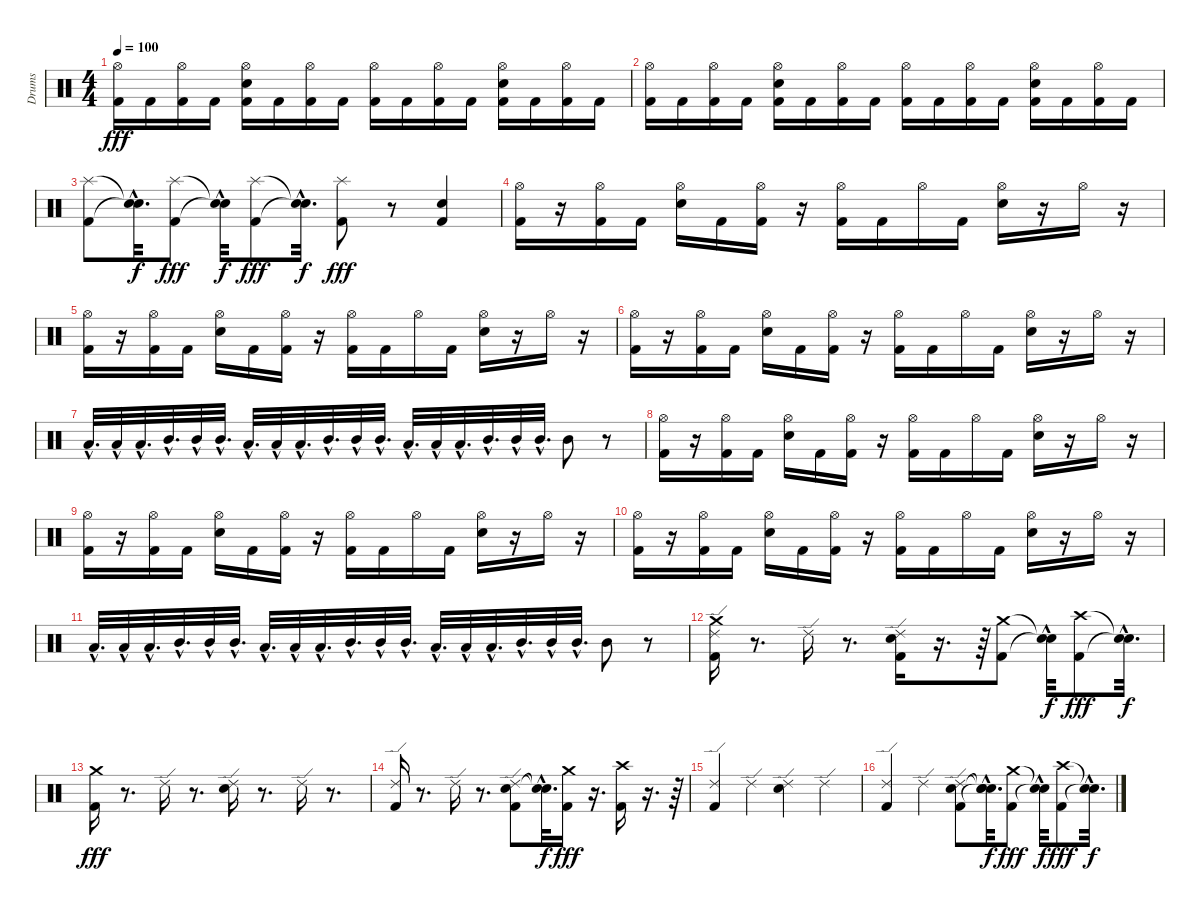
\track ("Drums" "Drums") {instrument percussion}
\staff {score}
\articulation defaults
\ts (4 4)
\tempo 100
\clef neutral
\ks c
("Hi-Hat (open)" "Kick (hit) 2").16{dy fff} "Kick (hit) 2".16 ("Hi-Hat (open)" "Kick (hit) 2").16 "Kick (hit) 2".16 ("Electric Snare (hit)" "Hi-Hat (open)" "Kick (hit) 2").16 "Kick (hit) 2".16 ("Hi-Hat (open)" "Kick (hit) 2").16 "Kick (hit) 2".16 ("Hi-Hat (open)" "Kick (hit) 2").16 "Kick (hit) 2".16 ("Hi-Hat (open)" "Kick (hit) 2").16 "Kick (hit) 2".16 ("Hi-Hat (open)" "Electric Snare (hit)" "Kick (hit) 2").16 "Kick (hit) 2".16 ("Hi-Hat (open)" "Kick (hit) 2").16 "Kick (hit) 2".16 |
("Hi-Hat (open)" "Kick (hit) 2").16 "Kick (hit) 2".16 ("Hi-Hat (open)" "Kick (hit) 2").16 "Kick (hit) 2".16 ("Electric Snare (hit)" "Hi-Hat (open)" "Kick (hit) 2").16 "Kick (hit) 2".16 ("Hi-Hat (open)" "Kick (hit) 2").16 "Kick (hit) 2".16 ("Hi-Hat (open)" "Kick (hit) 2").16 "Kick (hit) 2".16 ("Hi-Hat (open)" "Kick (hit) 2").16 "Kick (hit) 2".16 ("Hi-Hat (open)" "Electric Snare (hit)" "Kick (hit) 2").16 "Kick (hit) 2".16 ("Hi-Hat (open)" "Kick (hit) 2").16 "Kick (hit) 2".16 |
("Splash (hit)" "Kick (hit) 2").8 ("Snare (hit)"{hac t} "Snare (hit)"{hac t}).32{d dy f} ("Splash (hit)" "Kick (hit) 2").8{dy fff} ("Snare (hit)"{hac t} "Snare (hit)"{hac t}).32{dy f} ("Splash (hit)" "Kick (hit) 2").8{dy fff} ("Snare (hit)"{hac t} "Snare (hit)"{hac t}).32{d dy f} ("Splash (hit)" "Kick (hit) 2").8{dy fff} r.8 ("Electric Snare (hit)" "Kick (hit) 2").4 |
("Hi-Hat (open)" "Kick (hit) 2").16 r.16 ("Hi-Hat (open)" "Kick (hit) 2").16 "Kick (hit) 2".16 ("Hi-Hat (open)" "Electric Snare (hit)").16 "Kick (hit) 2".16 ("Hi-Hat (open)" "Kick (hit) 2").16 r.16 ("Hi-Hat (open)" "Kick (hit) 2").16 "Kick (hit) 2".16 "Hi-Hat (open)".16 "Kick (hit) 2".16 ("Hi-Hat (open)" "Electric Snare (hit)").16 r.16 "Hi-Hat (open)".16 r.16 |
("Hi-Hat (open)" "Kick (hit) 2").16 r.16 ("Hi-Hat (open)" "Kick (hit) 2").16 "Kick (hit) 2".16 ("Hi-Hat (open)" "Electric Snare (hit)").16 "Kick (hit) 2".16 ("Hi-Hat (open)" "Kick (hit) 2").16 r.16 ("Hi-Hat (open)" "Kick (hit) 2").16 "Kick (hit) 2".16 "Hi-Hat (open)".16 "Kick (hit) 2".16 ("Hi-Hat (open)" "Electric Snare (hit)").16 r.16 "Hi-Hat (open)".16 r.16 |
("Hi-Hat (open)" "Kick (hit) 2").16 r.16 ("Hi-Hat (open)" "Kick (hit) 2").16 "Kick (hit) 2".16 ("Hi-Hat (open)" "Electric Snare (hit)").16 "Kick (hit) 2".16 ("Hi-Hat (open)" "Kick (hit) 2").16 r.16 ("Hi-Hat (open)" "Kick (hit) 2").16 "Kick (hit) 2".16 "Hi-Hat (open)".16 "Kick (hit) 2".16 ("Hi-Hat (open)" "Electric Snare (hit)").16 r.16 "Hi-Hat (open)".16 r.16 |
"Low Tom (hit)"{hac}.32{d} "Low Tom (hit)"{hac}.32 "Low Tom (hit)"{hac}.32{d} "Mid Tom (hit)"{hac}.32{d} "Mid Tom (hit)"{hac}.32 "Mid Tom (hit)"{hac}.32{d} "Low Tom (hit)"{hac}.32{d} "Low Tom (hit)"{hac}.32 "Low Tom (hit)"{hac}.32{d} "Mid Tom (hit)"{hac}.32{d} "Mid Tom (hit)"{hac}.32 "Mid Tom (hit)"{hac}.32{d} "Low Tom (hit)"{hac}.32{d} "Low Tom (hit)"{hac}.32 "Low Tom (hit)"{hac}.32{d} "Mid Tom (hit)"{hac}.32{d} "Mid Tom (hit)"{hac}.32 "Mid Tom (hit)"{hac}.32{d} "Mid Tom (hit)".8 r.8 |
("Hi-Hat (open)" "Kick (hit) 2").16 r.16 ("Hi-Hat (open)" "Kick (hit) 2").16 "Kick (hit) 2".16 ("Hi-Hat (open)" "Electric Snare (hit)").16 "Kick (hit) 2".16 ("Hi-Hat (open)" "Kick (hit) 2").16 r.16 ("Hi-Hat (open)" "Kick (hit) 2").16 "Kick (hit) 2".16 "Hi-Hat (open)".16 "Kick (hit) 2".16 ("Hi-Hat (open)" "Electric Snare (hit)").16 r.16 "Hi-Hat (open)".16 r.16 |
("Hi-Hat (open)" "Kick (hit) 2").16 r.16 ("Hi-Hat (open)" "Kick (hit) 2").16 "Kick (hit) 2".16 ("Hi-Hat (open)" "Electric Snare (hit)").16 "Kick (hit) 2".16 ("Hi-Hat (open)" "Kick (hit) 2").16 r.16 ("Hi-Hat (open)" "Kick (hit) 2").16 "Kick (hit) 2".16 "Hi-Hat (open)".16 "Kick (hit) 2".16 ("Hi-Hat (open)" "Electric Snare (hit)").16 r.16 "Hi-Hat (open)".16 r.16 |
("Hi-Hat (open)" "Kick (hit) 2").16 r.16 ("Hi-Hat (open)" "Kick (hit) 2").16 "Kick (hit) 2".16 ("Hi-Hat (open)" "Electric Snare (hit)").16 "Kick (hit) 2".16 ("Hi-Hat (open)" "Kick (hit) 2").16 r.16 ("Hi-Hat (open)" "Kick (hit) 2").16 "Kick (hit) 2".16 "Hi-Hat (open)".16 "Kick (hit) 2".16 ("Hi-Hat (open)" "Electric Snare (hit)").16 r.16 "Hi-Hat (open)".16 r.16 |
"Low Tom (hit)"{hac}.32{d} "Low Tom (hit)"{hac}.32 "Low Tom (hit)"{hac}.32{d} "Mid Tom (hit)"{hac}.32{d} "Mid Tom (hit)"{hac}.32 "Mid Tom (hit)"{hac}.32{d} "Low Tom (hit)"{hac}.32{d} "Low Tom (hit)"{hac}.32 "Low Tom (hit)"{hac}.32{d} "Mid Tom (hit)"{hac}.32{d} "Mid Tom (hit)"{hac}.32 "Mid Tom (hit)"{hac}.32{d} "Low Tom (hit)"{hac}.32{d} "Low Tom (hit)"{hac}.32 "Low Tom (hit)"{hac}.32{d} "Mid Tom (hit)"{hac}.32{d} "Mid Tom (hit)"{hac}.32 "Mid Tom (hit)"{hac}.32{d} "Mid Tom (hit)".8 r.8 |
("Ride (edge) 2" "Crash medium (hit)" "Kick (hit) 2").16 r.8{d} "Ride (edge) 2".16 r.8{d} ("Ride (edge) 2" "Electric Snare (hit)" "Kick (hit) 2").16 r.16{d} r.64 ("Crash medium (hit)" "Kick (hit) 2").8 ("Snare (hit)"{hac t} "Snare (hit)"{hac t}).32{dy f} ("Crash high (hit)" "Kick (hit) 2").8{dy fff} ("Snare (hit)"{hac t} "Snare (hit)"{hac t}).32{d dy f} |
("Crash medium (hit)" "Kick (hit) 2").16{dy fff} r.8{d} "Ride (edge) 2".16 r.8{d} ("Ride (edge) 2" "Electric Snare (hit)").16 r.8{d} "Ride (edge) 2".16 r.8{d} |
("Ride (edge) 2" "Kick (hit) 2").16 r.8{d} "Ride (edge) 2".16 r.8{d} ("Ride (edge) 2" "Electric Snare (hit)" "Kick (hit) 2").8 ("Snare (hit)"{hac t} "Snare (hit)"{hac t}).32{d dy f} ("Crash medium (hit)" "Kick (hit) 2").16{dy fff} r.16{d} ("Crash high (hit)" "Kick (hit) 2").16 r.16{d} r.64 |
("Ride (edge) 2" "Kick (hit) 2").4 "Ride (edge) 2".4 ("Electric Snare (hit)" "Ride (edge) 2").4 "Ride (edge) 2".4 |
("Ride (edge) 2" "Kick (hit) 2").4 "Ride (edge) 2".4 ("Ride (edge) 2" "Electric Snare (hit)" "Kick (hit) 2").8 ("Snare (hit)"{hac t} "Snare (hit)"{hac t} "Snare (hit)"{hac t}).32{d dy f} ("Crash medium (hit)" "Kick (hit) 2").8{dy fff} ("Snare (hit)"{hac t} "Snare (hit)"{hac t}).32{dy f} ("Crash high (hit)" "Kick (hit) 2").8{dy fff} ("Snare (hit)"{hac t} "Snare (hit)"{hac t}).32{d dy f}
